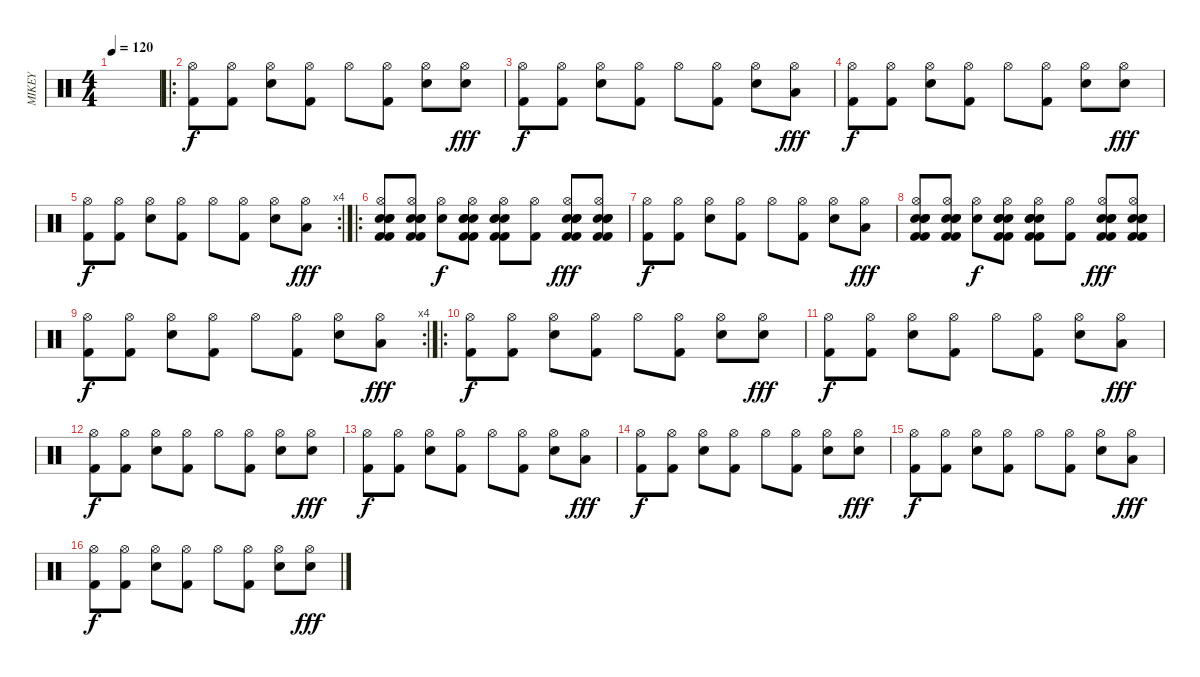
\track ("MIKEY" "MIKEY") {instrument percussion}
\staff {score}
\articulation defaults
\ts (4 4)
\tempo 120
\clef neutral
\ks c
|
\ro
("Kick (hit) 2" "Hi-Hat (open)").8{dy f} ("Kick (hit) 2" "Hi-Hat (open)").8 ("Electric Snare (hit)" "Hi-Hat (open)").8 ("Kick (hit) 2" "Hi-Hat (open)").8 "Hi-Hat (open)".8 ("Kick (hit) 2" "Hi-Hat (open)").8 ("Electric Snare (hit)" "Hi-Hat (open)").8 ("Electric Snare (hit)" "Hi-Hat (open)").8{dy fff} |
("Kick (hit) 2" "Hi-Hat (open)").8{dy f} ("Kick (hit) 2" "Hi-Hat (open)").8 ("Electric Snare (hit)" "Hi-Hat (open)").8 ("Kick (hit) 2" "Hi-Hat (open)").8 "Hi-Hat (open)".8 ("Kick (hit) 2" "Hi-Hat (open)").8 ("Electric Snare (hit)" "Hi-Hat (open)").8 ("Low Tom (hit)" "Hi-Hat (open)").8{dy fff} |
("Kick (hit) 2" "Hi-Hat (open)").8{dy f} ("Kick (hit) 2" "Hi-Hat (open)").8 ("Electric Snare (hit)" "Hi-Hat (open)").8 ("Kick (hit) 2" "Hi-Hat (open)").8 "Hi-Hat (open)".8 ("Kick (hit) 2" "Hi-Hat (open)").8 ("Electric Snare (hit)" "Hi-Hat (open)").8 ("Electric Snare (hit)" "Hi-Hat (open)").8{dy fff} |
\rc 4
("Kick (hit) 2" "Hi-Hat (open)").8{dy f} ("Kick (hit) 2" "Hi-Hat (open)").8 ("Electric Snare (hit)" "Hi-Hat (open)").8 ("Kick (hit) 2" "Hi-Hat (open)").8 "Hi-Hat (open)".8 ("Kick (hit) 2" "Hi-Hat (open)").8 ("Electric Snare (hit)" "Hi-Hat (open)").8 ("Low Tom (hit)" "Hi-Hat (open)").8{dy fff} |
\ro
("Snare (hit) 2" "Kick (hit) 2" "Electric Snare (hit)" "Snare (hit) 2" "Kick (hit) 2" "Hi-Hat (open)").8 ("Snare (hit) 2" "Kick (hit) 2" "Electric Snare (hit)" "Snare (hit) 2" "Kick (hit) 2" "Hi-Hat (open)").8 ("Electric Snare (hit)" "Hi-Hat (open)").8{dy f} ("Snare (hit) 2" "Kick (hit) 2" "Electric Snare (hit)" "Snare (hit) 2" "Kick (hit) 2" "Hi-Hat (open)").8 ("Snare (hit) 2" "Kick (hit) 2" "Electric Snare (hit)" "Snare (hit) 2" "Kick (hit) 2" "Hi-Hat (open)").8 ("Kick (hit) 2" "Hi-Hat (open)").8 ("Snare (hit) 2" "Kick (hit) 2" "Electric Snare (hit)" "Snare (hit) 2" "Kick (hit) 2" "Hi-Hat (open)").8{dy fff} ("Snare (hit) 2" "Kick (hit) 2" "Electric Snare (hit)" "Snare (hit) 2" "Kick (hit) 2" "Hi-Hat (open)").8 |
("Kick (hit) 2" "Hi-Hat (open)").8{dy f} ("Kick (hit) 2" "Hi-Hat (open)").8 ("Electric Snare (hit)" "Hi-Hat (open)").8 ("Kick (hit) 2" "Hi-Hat (open)").8 "Hi-Hat (open)".8 ("Kick (hit) 2" "Hi-Hat (open)").8 ("Electric Snare (hit)" "Hi-Hat (open)").8 ("Low Tom (hit)" "Hi-Hat (open)").8{dy fff} |
("Snare (hit) 2" "Kick (hit) 2" "Electric Snare (hit)" "Snare (hit) 2" "Kick (hit) 2" "Hi-Hat (open)").8 ("Snare (hit) 2" "Kick (hit) 2" "Electric Snare (hit)" "Snare (hit) 2" "Kick (hit) 2" "Hi-Hat (open)").8 ("Electric Snare (hit)" "Hi-Hat (open)").8{dy f} ("Snare (hit) 2" "Kick (hit) 2" "Electric Snare (hit)" "Snare (hit) 2" "Kick (hit) 2" "Hi-Hat (open)").8 ("Snare (hit) 2" "Kick (hit) 2" "Electric Snare (hit)" "Snare (hit) 2" "Kick (hit) 2" "Hi-Hat (open)").8 ("Kick (hit) 2" "Hi-Hat (open)").8 ("Snare (hit) 2" "Kick (hit) 2" "Electric Snare (hit)" "Snare (hit) 2" "Kick (hit) 2" "Hi-Hat (open)").8{dy fff} ("Snare (hit) 2" "Kick (hit) 2" "Electric Snare (hit)" "Snare (hit) 2" "Kick (hit) 2" "Hi-Hat (open)").8 |
\rc 4
("Kick (hit) 2" "Hi-Hat (open)").8{dy f} ("Kick (hit) 2" "Hi-Hat (open)").8 ("Electric Snare (hit)" "Hi-Hat (open)").8 ("Kick (hit) 2" "Hi-Hat (open)").8 "Hi-Hat (open)".8 ("Kick (hit) 2" "Hi-Hat (open)").8 ("Electric Snare (hit)" "Hi-Hat (open)").8 ("Low Tom (hit)" "Hi-Hat (open)").8{dy fff} |
\ro
("Kick (hit) 2" "Hi-Hat (open)").8{dy f} ("Kick (hit) 2" "Hi-Hat (open)").8 ("Electric Snare (hit)" "Hi-Hat (open)").8 ("Kick (hit) 2" "Hi-Hat (open)").8 "Hi-Hat (open)".8 ("Kick (hit) 2" "Hi-Hat (open)").8 ("Electric Snare (hit)" "Hi-Hat (open)").8 ("Electric Snare (hit)" "Hi-Hat (open)").8{dy fff} |
("Kick (hit) 2" "Hi-Hat (open)").8{dy f} ("Kick (hit) 2" "Hi-Hat (open)").8 ("Electric Snare (hit)" "Hi-Hat (open)").8 ("Kick (hit) 2" "Hi-Hat (open)").8 "Hi-Hat (open)".8 ("Kick (hit) 2" "Hi-Hat (open)").8 ("Electric Snare (hit)" "Hi-Hat (open)").8 ("Low Tom (hit)" "Hi-Hat (open)").8{dy fff} |
("Kick (hit) 2" "Hi-Hat (open)").8{dy f} ("Kick (hit) 2" "Hi-Hat (open)").8 ("Electric Snare (hit)" "Hi-Hat (open)").8 ("Kick (hit) 2" "Hi-Hat (open)").8 "Hi-Hat (open)".8 ("Kick (hit) 2" "Hi-Hat (open)").8 ("Electric Snare (hit)" "Hi-Hat (open)").8 ("Electric Snare (hit)" "Hi-Hat (open)").8{dy fff} |
("Kick (hit) 2" "Hi-Hat (open)").8{dy f} ("Kick (hit) 2" "Hi-Hat (open)").8 ("Electric Snare (hit)" "Hi-Hat (open)").8 ("Kick (hit) 2" "Hi-Hat (open)").8 "Hi-Hat (open)".8 ("Kick (hit) 2" "Hi-Hat (open)").8 ("Electric Snare (hit)" "Hi-Hat (open)").8 ("Low Tom (hit)" "Hi-Hat (open)").8{dy fff} |
("Kick (hit) 2" "Hi-Hat (open)").8{dy f} ("Kick (hit) 2" "Hi-Hat (open)").8 ("Electric Snare (hit)" "Hi-Hat (open)").8 ("Kick (hit) 2" "Hi-Hat (open)").8 "Hi-Hat (open)".8 ("Kick (hit) 2" "Hi-Hat (open)").8 ("Electric Snare (hit)" "Hi-Hat (open)").8 ("Electric Snare (hit)" "Hi-Hat (open)").8{dy fff} |
("Kick (hit) 2" "Hi-Hat (open)").8{dy f} ("Kick (hit) 2" "Hi-Hat (open)").8 ("Electric Snare (hit)" "Hi-Hat (open)").8 ("Kick (hit) 2" "Hi-Hat (open)").8 "Hi-Hat (open)".8 ("Kick (hit) 2" "Hi-Hat (open)").8 ("Electric Snare (hit)" "Hi-Hat (open)").8 ("Low Tom (hit)" "Hi-Hat (open)").8{dy fff} |
("Kick (hit) 2" "Hi-Hat (open)").8{dy f} ("Kick (hit) 2" "Hi-Hat (open)").8 ("Electric Snare (hit)" "Hi-Hat (open)").8 ("Kick (hit) 2" "Hi-Hat (open)").8 "Hi-Hat (open)".8 ("Kick (hit) 2" "Hi-Hat (open)").8 ("Electric Snare (hit)" "Hi-Hat (open)").8 ("Electric Snare (hit)" "Hi-Hat (open)").8{dy fff}
